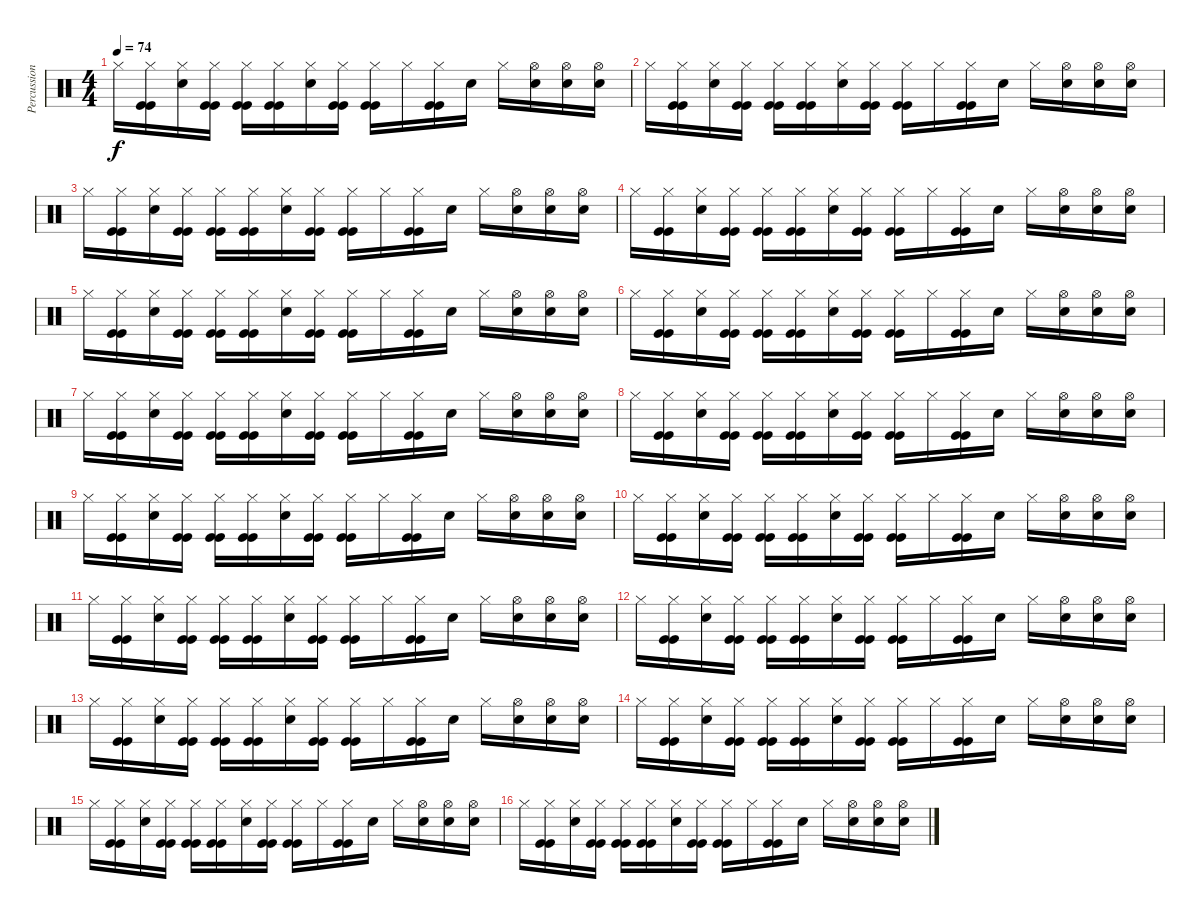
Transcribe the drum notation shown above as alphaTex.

\track ("Percussion" "Percussion") {instrument percussion}
\staff {score}
\articulation defaults
\ts (4 4)
\tempo 74
\clef neutral
\ks c "Hi-Hat (closed)".16{dy f}
("Hi-Hat (closed)" "Kick (hit)" "Kick (hit)").16 ("Hi-Hat (closed)" "Snare (hit) 2").16 ("Hi-Hat (closed)" "Kick (hit)" "Kick (hit)").16 ("Hi-Hat (closed)" "Kick (hit)" "Kick (hit)").16 ("Hi-Hat (closed)" "Kick (hit)" "Kick (hit)").16 ("Hi-Hat (closed)" "Snare (hit) 2").16 ("Hi-Hat (closed)" "Kick (hit)" "Kick (hit)").16 ("Hi-Hat (closed)" "Kick (hit)" "Kick (hit)").16 "Hi-Hat (closed)".16 ("Hi-Hat (closed)" "Kick (hit)" "Kick (hit)").16 "Snare (hit) 2".16 "Hi-Hat (closed)".16 ("Hi-Hat (open)" "Snare (hit) 2").16 ("Hi-Hat (open)" "Snare (hit) 2").16 ("Hi-Hat (open)" "Snare (hit) 2").16 |
"Hi-Hat (closed)".16 ("Hi-Hat (closed)" "Kick (hit)" "Kick (hit)").16 ("Hi-Hat (closed)" "Snare (hit) 2").16 ("Hi-Hat (closed)" "Kick (hit)" "Kick (hit)").16 ("Hi-Hat (closed)" "Kick (hit)" "Kick (hit)").16 ("Hi-Hat (closed)" "Kick (hit)" "Kick (hit)").16 ("Hi-Hat (closed)" "Snare (hit) 2").16 ("Hi-Hat (closed)" "Kick (hit)" "Kick (hit)").16 ("Hi-Hat (closed)" "Kick (hit)" "Kick (hit)").16 "Hi-Hat (closed)".16 ("Hi-Hat (closed)" "Kick (hit)" "Kick (hit)").16 "Snare (hit) 2".16 "Hi-Hat (closed)".16 ("Hi-Hat (open)" "Snare (hit) 2").16 ("Hi-Hat (open)" "Snare (hit) 2").16 ("Hi-Hat (open)" "Snare (hit) 2").16 |
"Hi-Hat (closed)".16 ("Hi-Hat (closed)" "Kick (hit)" "Kick (hit)").16 ("Hi-Hat (closed)" "Snare (hit) 2").16 ("Hi-Hat (closed)" "Kick (hit)" "Kick (hit)").16 ("Hi-Hat (closed)" "Kick (hit)" "Kick (hit)").16 ("Hi-Hat (closed)" "Kick (hit)" "Kick (hit)").16 ("Hi-Hat (closed)" "Snare (hit) 2").16 ("Hi-Hat (closed)" "Kick (hit)" "Kick (hit)").16 ("Hi-Hat (closed)" "Kick (hit)" "Kick (hit)").16 "Hi-Hat (closed)".16 ("Hi-Hat (closed)" "Kick (hit)" "Kick (hit)").16 "Snare (hit) 2".16 "Hi-Hat (closed)".16 ("Hi-Hat (open)" "Snare (hit) 2").16 ("Hi-Hat (open)" "Snare (hit) 2").16 ("Hi-Hat (open)" "Snare (hit) 2").16 |
"Hi-Hat (closed)".16 ("Hi-Hat (closed)" "Kick (hit)" "Kick (hit)").16 ("Hi-Hat (closed)" "Snare (hit) 2").16 ("Hi-Hat (closed)" "Kick (hit)" "Kick (hit)").16 ("Hi-Hat (closed)" "Kick (hit)" "Kick (hit)").16 ("Hi-Hat (closed)" "Kick (hit)" "Kick (hit)").16 ("Hi-Hat (closed)" "Snare (hit) 2").16 ("Hi-Hat (closed)" "Kick (hit)" "Kick (hit)").16 ("Hi-Hat (closed)" "Kick (hit)" "Kick (hit)").16 "Hi-Hat (closed)".16 ("Hi-Hat (closed)" "Kick (hit)" "Kick (hit)").16 "Snare (hit) 2".16 "Hi-Hat (closed)".16 ("Hi-Hat (open)" "Snare (hit) 2").16 ("Hi-Hat (open)" "Snare (hit) 2").16 ("Hi-Hat (open)" "Snare (hit) 2").16 |
"Hi-Hat (closed)".16 ("Hi-Hat (closed)" "Kick (hit)" "Kick (hit)").16 ("Hi-Hat (closed)" "Snare (hit) 2").16 ("Hi-Hat (closed)" "Kick (hit)" "Kick (hit)").16 ("Hi-Hat (closed)" "Kick (hit)" "Kick (hit)").16 ("Hi-Hat (closed)" "Kick (hit)" "Kick (hit)").16 ("Hi-Hat (closed)" "Snare (hit) 2").16 ("Hi-Hat (closed)" "Kick (hit)" "Kick (hit)").16 ("Hi-Hat (closed)" "Kick (hit)" "Kick (hit)").16 "Hi-Hat (closed)".16 ("Hi-Hat (closed)" "Kick (hit)" "Kick (hit)").16 "Snare (hit) 2".16 "Hi-Hat (closed)".16 ("Hi-Hat (open)" "Snare (hit) 2").16 ("Hi-Hat (open)" "Snare (hit) 2").16 ("Hi-Hat (open)" "Snare (hit) 2").16 |
"Hi-Hat (closed)".16 ("Hi-Hat (closed)" "Kick (hit)" "Kick (hit)").16 ("Hi-Hat (closed)" "Snare (hit) 2").16 ("Hi-Hat (closed)" "Kick (hit)" "Kick (hit)").16 ("Hi-Hat (closed)" "Kick (hit)" "Kick (hit)").16 ("Hi-Hat (closed)" "Kick (hit)" "Kick (hit)").16 ("Hi-Hat (closed)" "Snare (hit) 2").16 ("Hi-Hat (closed)" "Kick (hit)" "Kick (hit)").16 ("Hi-Hat (closed)" "Kick (hit)" "Kick (hit)").16 "Hi-Hat (closed)".16 ("Hi-Hat (closed)" "Kick (hit)" "Kick (hit)").16 "Snare (hit) 2".16 "Hi-Hat (closed)".16 ("Hi-Hat (open)" "Snare (hit) 2").16 ("Hi-Hat (open)" "Snare (hit) 2").16 ("Hi-Hat (open)" "Snare (hit) 2").16 |
"Hi-Hat (closed)".16 ("Hi-Hat (closed)" "Kick (hit)" "Kick (hit)").16 ("Hi-Hat (closed)" "Snare (hit) 2").16 ("Hi-Hat (closed)" "Kick (hit)" "Kick (hit)").16 ("Hi-Hat (closed)" "Kick (hit)" "Kick (hit)").16 ("Hi-Hat (closed)" "Kick (hit)" "Kick (hit)").16 ("Hi-Hat (closed)" "Snare (hit) 2").16 ("Hi-Hat (closed)" "Kick (hit)" "Kick (hit)").16 ("Hi-Hat (closed)" "Kick (hit)" "Kick (hit)").16 "Hi-Hat (closed)".16 ("Hi-Hat (closed)" "Kick (hit)" "Kick (hit)").16 "Snare (hit) 2".16 "Hi-Hat (closed)".16 ("Hi-Hat (open)" "Snare (hit) 2").16 ("Hi-Hat (open)" "Snare (hit) 2").16 ("Hi-Hat (open)" "Snare (hit) 2").16 |
"Hi-Hat (closed)".16 ("Hi-Hat (closed)" "Kick (hit)" "Kick (hit)").16 ("Hi-Hat (closed)" "Snare (hit) 2").16 ("Hi-Hat (closed)" "Kick (hit)" "Kick (hit)").16 ("Hi-Hat (closed)" "Kick (hit)" "Kick (hit)").16 ("Hi-Hat (closed)" "Kick (hit)" "Kick (hit)").16 ("Hi-Hat (closed)" "Snare (hit) 2").16 ("Hi-Hat (closed)" "Kick (hit)" "Kick (hit)").16 ("Hi-Hat (closed)" "Kick (hit)" "Kick (hit)").16 "Hi-Hat (closed)".16 ("Hi-Hat (closed)" "Kick (hit)" "Kick (hit)").16 "Snare (hit) 2".16 "Hi-Hat (closed)".16 ("Hi-Hat (open)" "Snare (hit) 2").16 ("Hi-Hat (open)" "Snare (hit) 2").16 ("Hi-Hat (open)" "Snare (hit) 2").16 |
"Hi-Hat (closed)".16 ("Hi-Hat (closed)" "Kick (hit)" "Kick (hit)").16 ("Hi-Hat (closed)" "Snare (hit) 2").16 ("Hi-Hat (closed)" "Kick (hit)" "Kick (hit)").16 ("Hi-Hat (closed)" "Kick (hit)" "Kick (hit)").16 ("Hi-Hat (closed)" "Kick (hit)" "Kick (hit)").16 ("Hi-Hat (closed)" "Snare (hit) 2").16 ("Hi-Hat (closed)" "Kick (hit)" "Kick (hit)").16 ("Hi-Hat (closed)" "Kick (hit)" "Kick (hit)").16 "Hi-Hat (closed)".16 ("Hi-Hat (closed)" "Kick (hit)" "Kick (hit)").16 "Snare (hit) 2".16 "Hi-Hat (closed)".16 ("Hi-Hat (open)" "Snare (hit) 2").16 ("Hi-Hat (open)" "Snare (hit) 2").16 ("Hi-Hat (open)" "Snare (hit) 2").16 |
"Hi-Hat (closed)".16 ("Hi-Hat (closed)" "Kick (hit)" "Kick (hit)").16 ("Hi-Hat (closed)" "Snare (hit) 2").16 ("Hi-Hat (closed)" "Kick (hit)" "Kick (hit)").16 ("Hi-Hat (closed)" "Kick (hit)" "Kick (hit)").16 ("Hi-Hat (closed)" "Kick (hit)" "Kick (hit)").16 ("Hi-Hat (closed)" "Snare (hit) 2").16 ("Hi-Hat (closed)" "Kick (hit)" "Kick (hit)").16 ("Hi-Hat (closed)" "Kick (hit)" "Kick (hit)").16 "Hi-Hat (closed)".16 ("Hi-Hat (closed)" "Kick (hit)" "Kick (hit)").16 "Snare (hit) 2".16 "Hi-Hat (closed)".16 ("Hi-Hat (open)" "Snare (hit) 2").16 ("Hi-Hat (open)" "Snare (hit) 2").16 ("Hi-Hat (open)" "Snare (hit) 2").16 |
"Hi-Hat (closed)".16 ("Hi-Hat (closed)" "Kick (hit)" "Kick (hit)").16 ("Hi-Hat (closed)" "Snare (hit) 2").16 ("Hi-Hat (closed)" "Kick (hit)" "Kick (hit)").16 ("Hi-Hat (closed)" "Kick (hit)" "Kick (hit)").16 ("Hi-Hat (closed)" "Kick (hit)" "Kick (hit)").16 ("Hi-Hat (closed)" "Snare (hit) 2").16 ("Hi-Hat (closed)" "Kick (hit)" "Kick (hit)").16 ("Hi-Hat (closed)" "Kick (hit)" "Kick (hit)").16 "Hi-Hat (closed)".16 ("Hi-Hat (closed)" "Kick (hit)" "Kick (hit)").16 "Snare (hit) 2".16 "Hi-Hat (closed)".16 ("Hi-Hat (open)" "Snare (hit) 2").16 ("Hi-Hat (open)" "Snare (hit) 2").16 ("Hi-Hat (open)" "Snare (hit) 2").16 |
"Hi-Hat (closed)".16 ("Hi-Hat (closed)" "Kick (hit)" "Kick (hit)").16 ("Hi-Hat (closed)" "Snare (hit) 2").16 ("Hi-Hat (closed)" "Kick (hit)" "Kick (hit)").16 ("Hi-Hat (closed)" "Kick (hit)" "Kick (hit)").16 ("Hi-Hat (closed)" "Kick (hit)" "Kick (hit)").16 ("Hi-Hat (closed)" "Snare (hit) 2").16 ("Hi-Hat (closed)" "Kick (hit)" "Kick (hit)").16 ("Hi-Hat (closed)" "Kick (hit)" "Kick (hit)").16 "Hi-Hat (closed)".16 ("Hi-Hat (closed)" "Kick (hit)" "Kick (hit)").16 "Snare (hit) 2".16 "Hi-Hat (closed)".16 ("Hi-Hat (open)" "Snare (hit) 2").16 ("Hi-Hat (open)" "Snare (hit) 2").16 ("Hi-Hat (open)" "Snare (hit) 2").16 |
"Hi-Hat (closed)".16 ("Hi-Hat (closed)" "Kick (hit)" "Kick (hit)").16 ("Hi-Hat (closed)" "Snare (hit) 2").16 ("Hi-Hat (closed)" "Kick (hit)" "Kick (hit)").16 ("Hi-Hat (closed)" "Kick (hit)" "Kick (hit)").16 ("Hi-Hat (closed)" "Kick (hit)" "Kick (hit)").16 ("Hi-Hat (closed)" "Snare (hit) 2").16 ("Hi-Hat (closed)" "Kick (hit)" "Kick (hit)").16 ("Hi-Hat (closed)" "Kick (hit)" "Kick (hit)").16 "Hi-Hat (closed)".16 ("Hi-Hat (closed)" "Kick (hit)" "Kick (hit)").16 "Snare (hit) 2".16 "Hi-Hat (closed)".16 ("Hi-Hat (open)" "Snare (hit) 2").16 ("Hi-Hat (open)" "Snare (hit) 2").16 ("Hi-Hat (open)" "Snare (hit) 2").16 |
"Hi-Hat (closed)".16 ("Hi-Hat (closed)" "Kick (hit)" "Kick (hit)").16 ("Hi-Hat (closed)" "Snare (hit) 2").16 ("Hi-Hat (closed)" "Kick (hit)" "Kick (hit)").16 ("Hi-Hat (closed)" "Kick (hit)" "Kick (hit)").16 ("Hi-Hat (closed)" "Kick (hit)" "Kick (hit)").16 ("Hi-Hat (closed)" "Snare (hit) 2").16 ("Hi-Hat (closed)" "Kick (hit)" "Kick (hit)").16 ("Hi-Hat (closed)" "Kick (hit)" "Kick (hit)").16 "Hi-Hat (closed)".16 ("Hi-Hat (closed)" "Kick (hit)" "Kick (hit)").16 "Snare (hit) 2".16 "Hi-Hat (closed)".16 ("Hi-Hat (open)" "Snare (hit) 2").16 ("Hi-Hat (open)" "Snare (hit) 2").16 ("Hi-Hat (open)" "Snare (hit) 2").16 |
"Hi-Hat (closed)".16 ("Hi-Hat (closed)" "Kick (hit)" "Kick (hit)").16 ("Hi-Hat (closed)" "Snare (hit) 2").16 ("Hi-Hat (closed)" "Kick (hit)" "Kick (hit)").16 ("Hi-Hat (closed)" "Kick (hit)" "Kick (hit)").16 ("Hi-Hat (closed)" "Kick (hit)" "Kick (hit)").16 ("Hi-Hat (closed)" "Snare (hit) 2").16 ("Hi-Hat (closed)" "Kick (hit)" "Kick (hit)").16 ("Hi-Hat (closed)" "Kick (hit)" "Kick (hit)").16 "Hi-Hat (closed)".16 ("Hi-Hat (closed)" "Kick (hit)" "Kick (hit)").16 "Snare (hit) 2".16 "Hi-Hat (closed)".16 ("Hi-Hat (open)" "Snare (hit) 2").16 ("Hi-Hat (open)" "Snare (hit) 2").16 ("Hi-Hat (open)" "Snare (hit) 2").16 |
"Hi-Hat (closed)".16 ("Hi-Hat (closed)" "Kick (hit)" "Kick (hit)").16 ("Hi-Hat (closed)" "Snare (hit) 2").16 ("Hi-Hat (closed)" "Kick (hit)" "Kick (hit)").16 ("Hi-Hat (closed)" "Kick (hit)" "Kick (hit)").16 ("Hi-Hat (closed)" "Kick (hit)" "Kick (hit)").16 ("Hi-Hat (closed)" "Snare (hit) 2").16 ("Hi-Hat (closed)" "Kick (hit)" "Kick (hit)").16 ("Hi-Hat (closed)" "Kick (hit)" "Kick (hit)").16 "Hi-Hat (closed)".16 ("Hi-Hat (closed)" "Kick (hit)" "Kick (hit)").16 "Snare (hit) 2".16 "Hi-Hat (closed)".16 ("Hi-Hat (open)" "Snare (hit) 2").16 ("Hi-Hat (open)" "Snare (hit) 2").16 ("Hi-Hat (open)" "Snare (hit) 2").16
